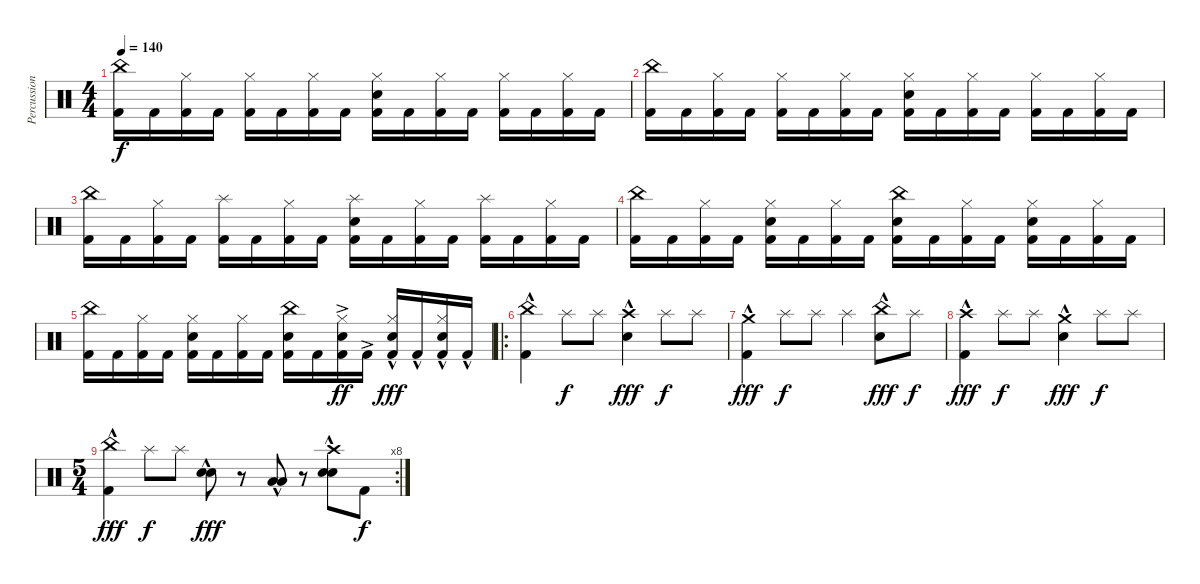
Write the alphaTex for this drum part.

\track ("Percussion" "Percussion") {instrument percussion}
\staff {score}
\articulation defaults
\ts (4 4)
\tempo 140
\clef neutral
\ks c
("China (hit)" "Kick (hit) 2").16{dy f} "Kick (hit) 2".16 ("Hi-Hat (closed)" "Kick (hit) 2").16 "Kick (hit) 2".16 ("Hi-Hat (closed)" "Kick (hit) 2").16 "Kick (hit) 2".16 ("Hi-Hat (closed)" "Kick (hit) 2").16 "Kick (hit) 2".16 ("Hi-Hat (closed)" "Snare (hit) 2" "Kick (hit) 2").16 "Kick (hit) 2".16 ("Hi-Hat (closed)" "Kick (hit) 2").16 "Kick (hit) 2".16 ("Hi-Hat (closed)" "Kick (hit) 2").16 "Kick (hit) 2".16 ("Hi-Hat (closed)" "Kick (hit) 2").16 "Kick (hit) 2".16 |
("China (hit)" "Kick (hit) 2").16 "Kick (hit) 2".16 ("Hi-Hat (closed)" "Kick (hit) 2").16 "Kick (hit) 2".16 ("Hi-Hat (closed)" "Kick (hit) 2").16 "Kick (hit) 2".16 ("Hi-Hat (closed)" "Kick (hit) 2").16 "Kick (hit) 2".16 ("Hi-Hat (closed)" "Snare (hit) 2" "Kick (hit) 2").16 "Kick (hit) 2".16 ("Hi-Hat (closed)" "Kick (hit) 2").16 "Kick (hit) 2".16 ("Hi-Hat (closed)" "Kick (hit) 2").16 "Kick (hit) 2".16 ("Hi-Hat (closed)" "Kick (hit) 2").16 "Kick (hit) 2".16 |
("China (hit)" "Kick (hit) 2").16 "Kick (hit) 2".16 ("Hi-Hat (closed)" "Kick (hit) 2").16 "Kick (hit) 2".16 ("Splash (hit)" "Kick (hit) 2").16 "Kick (hit) 2".16 ("Hi-Hat (closed)" "Kick (hit) 2").16 "Kick (hit) 2".16 ("Splash (hit)" "Snare (hit) 2" "Kick (hit) 2").16 "Kick (hit) 2".16 ("Hi-Hat (closed)" "Kick (hit) 2").16 "Kick (hit) 2".16 ("Splash (hit)" "Kick (hit) 2").16 "Kick (hit) 2".16 ("Hi-Hat (closed)" "Kick (hit) 2").16 "Kick (hit) 2".16 |
("China (hit)" "Kick (hit) 2").16 "Kick (hit) 2".16 ("Hi-Hat (closed)" "Kick (hit) 2").16 "Kick (hit) 2".16 ("Hi-Hat (closed)" "Snare (hit) 2" "Kick (hit) 2").16 "Kick (hit) 2".16 ("Hi-Hat (closed)" "Kick (hit) 2").16 "Kick (hit) 2".16 ("China (hit)" "Snare (hit) 2" "Kick (hit) 2").16 "Kick (hit) 2".16 ("Hi-Hat (closed)" "Kick (hit) 2").16 "Kick (hit) 2".16 ("Hi-Hat (closed)" "Snare (hit) 2" "Kick (hit) 2").16 "Kick (hit) 2".16 ("Hi-Hat (closed)" "Kick (hit) 2").16 "Kick (hit) 2".16 |
("China (hit)" "Kick (hit) 2").16 "Kick (hit) 2".16 ("Hi-Hat (closed)" "Kick (hit) 2").16 "Kick (hit) 2".16 ("Hi-Hat (closed)" "Snare (hit) 2" "Kick (hit) 2").16 "Kick (hit) 2".16 ("Hi-Hat (closed)" "Kick (hit) 2").16 "Kick (hit) 2".16 ("China (hit)" "Snare (hit) 2" "Kick (hit) 2").16 "Kick (hit) 2".16 ("Hi-Hat (closed)" "Snare (hit) 2"{ac} "Kick (hit) 2"{ac}).16{dy ff} "Kick (hit) 2"{ac}.16 ("Hi-Hat (closed)" "Snare (hit) 2"{hac} "Kick (hit) 2"{hac}).16{dy fff} "Kick (hit) 2"{hac}.16 ("Hi-Hat (closed)" "Snare (hit) 2"{hac} "Kick (hit) 2"{hac}).16 "Kick (hit) 2"{hac}.16 |
\ro
("China (hit)"{hac} "Kick (hit) 2"{hac}).4 "Splash (hit)".8{dy f} "Splash (hit)".8 ("Crash high (hit)"{hac} "Snare (hit) 2"{hac}).4{dy fff} "Splash (hit)".8{dy f} "Splash (hit)".8 |
("Crash medium (hit)"{hac} "Kick (hit) 2"{hac}).4{dy fff} "Splash (hit)".8{dy f} "Splash (hit)".8 "Splash (hit)".4 ("China (hit)"{hac} "Snare (hit) 2"{hac}).8{dy fff} "Splash (hit)".8{dy f} |
("Crash high (hit)"{hac} "Kick (hit) 2"{hac}).4{dy fff} "Splash (hit)".8{dy f} "Splash (hit)".8 ("Crash medium (hit)"{hac} "Snare (hit) 2"{hac}).4{dy fff} "Splash (hit)".8{dy f} "Splash (hit)".8 |
\rc 8
\ts (5 4)
("China (hit)"{hac} "Kick (hit) 2"{hac}).4{dy fff} "Splash (hit)".8{dy f} "Splash (hit)".8 ("Snare (hit) 2"{hac} "Snare (hit) 2"{hac}).8{dy fff} r.8 ("Low Tom (hit)"{hac} "Low Tom (hit)"{hac}).8 r.8 ("Crash high (hit)"{hac} "Snare (hit) 2"{hac} "Snare (hit) 2"{hac}).8 "Kick (hit) 2".8{dy f}
